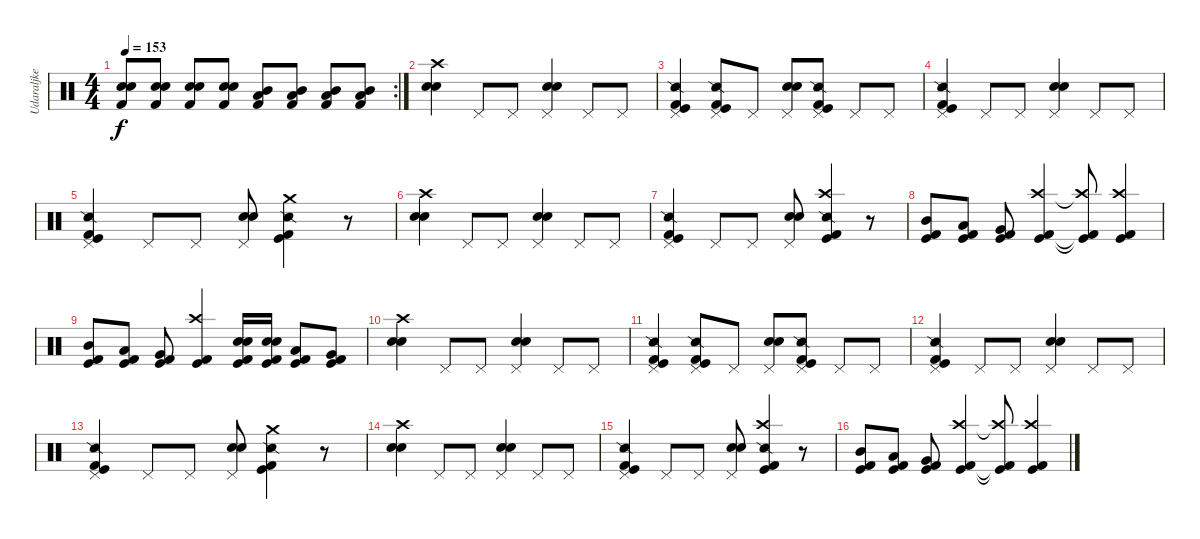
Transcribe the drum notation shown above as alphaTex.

\track ("Udaraljke" "Udaraljke") {instrument percussion}
\staff {score}
\articulation defaults
\rc 2
\ts (4 4)
\tempo 153
\clef neutral
\ks c
("Electric Snare (hit)" "Snare (hit) 2" "Kick (hit) 2").8{dy f} ("Electric Snare (hit)" "Snare (hit) 2" "Kick (hit) 2").8 ("Electric Snare (hit)" "Snare (hit) 2" "Kick (hit) 2").8 ("Electric Snare (hit)" "Snare (hit) 2" "Kick (hit) 2").8 ("Mid Tom (hit)" "Low Tom (hit)" "Kick (hit) 2").8 ("Mid Tom (hit)" "Low Tom (hit)" "Kick (hit) 2").8 ("Mid Tom (hit)" "Low Tom (hit)" "Kick (hit) 2").8 ("Mid Tom (hit)" "Low Tom (hit)" "Kick (hit) 2").8 |
("Crash high (hit)" "Electric Snare (hit)" "Snare (hit) 2").4 "Pedal Hi-Hat (hit)".8 "Pedal Hi-Hat (hit)".8 ("Pedal Hi-Hat (hit)" "Electric Snare (hit)" "Snare (hit) 2").4 "Pedal Hi-Hat (hit)".8 "Pedal Hi-Hat (hit)".8 |
("Pedal Hi-Hat (hit)" "Kick (hit) 2" "Kick (hit)" "Snare (side stick) 2").4 ("Pedal Hi-Hat (hit)" "Kick (hit) 2" "Kick (hit)" "Snare (side stick) 2").8 "Pedal Hi-Hat (hit)".8 ("Pedal Hi-Hat (hit)" "Electric Snare (hit)" "Snare (hit) 2").8 ("Pedal Hi-Hat (hit)" "Kick (hit) 2" "Kick (hit)" "Snare (side stick) 2").8 "Pedal Hi-Hat (hit)".8 "Pedal Hi-Hat (hit)".8 |
("Pedal Hi-Hat (hit)" "Kick (hit) 2" "Kick (hit)" "Snare (side stick) 2").4 "Pedal Hi-Hat (hit)".8 "Pedal Hi-Hat (hit)".8 ("Pedal Hi-Hat (hit)" "Electric Snare (hit)" "Snare (hit) 2").4 "Pedal Hi-Hat (hit)".8 "Pedal Hi-Hat (hit)".8 |
("Pedal Hi-Hat (hit)" "Kick (hit) 2" "Kick (hit)" "Snare (side stick) 2").4 "Pedal Hi-Hat (hit)".8 "Pedal Hi-Hat (hit)".8 ("Pedal Hi-Hat (hit)" "Electric Snare (hit)" "Snare (hit) 2").8 ("Crash medium (hit)" "Kick (hit) 2" "Kick (hit)" "Snare (side stick) 2").4 r.8 |
("Crash high (hit)" "Electric Snare (hit)" "Snare (hit) 2").4 "Pedal Hi-Hat (hit)".8 "Pedal Hi-Hat (hit)".8 ("Pedal Hi-Hat (hit)" "Electric Snare (hit)" "Snare (hit) 2").4 "Pedal Hi-Hat (hit)".8 "Pedal Hi-Hat (hit)".8 |
("Pedal Hi-Hat (hit)" "Kick (hit) 2" "Kick (hit)" "Snare (side stick) 2").4 "Pedal Hi-Hat (hit)".8 "Pedal Hi-Hat (hit)".8 ("Pedal Hi-Hat (hit)" "Electric Snare (hit)" "Snare (hit) 2").8 ("Crash high (hit)" "Kick (hit) 2" "Kick (hit)" "Snare (side stick) 2").4 r.8 |
("Mid Tom (hit)" "Kick (hit) 2" "Kick (hit)").8 ("Low Tom (hit)" "Kick (hit) 2" "Kick (hit)").8 ("Very Low Tom (hit)" "Kick (hit) 2" "Kick (hit)").8 ("Crash high (hit)" "Kick (hit) 2" "Kick (hit)").4 ("Crash high (hit)"{t} "Kick (hit) 2"{t} "Kick (hit)"{t}).8 ("Crash high (hit)" "Kick (hit) 2" "Kick (hit)").4 |
("Mid Tom (hit)" "Kick (hit) 2" "Kick (hit)").8 ("Low Tom (hit)" "Kick (hit) 2" "Kick (hit)").8 ("Very Low Tom (hit)" "Kick (hit) 2" "Kick (hit)").8 ("Crash high (hit)" "Kick (hit) 2" "Kick (hit)").4 ("Electric Snare (hit)" "Snare (hit) 2" "Kick (hit) 2" "Kick (hit)").16 ("Electric Snare (hit)" "Snare (hit) 2" "Kick (hit) 2" "Kick (hit)").16 ("Low Tom (hit)" "Kick (hit) 2" "Kick (hit)").8 ("Very Low Tom (hit)" "Kick (hit) 2" "Kick (hit)").8 |
("Crash high (hit)" "Electric Snare (hit)" "Snare (hit) 2").4 "Pedal Hi-Hat (hit)".8 "Pedal Hi-Hat (hit)".8 ("Pedal Hi-Hat (hit)" "Electric Snare (hit)" "Snare (hit) 2").4 "Pedal Hi-Hat (hit)".8 "Pedal Hi-Hat (hit)".8 |
("Pedal Hi-Hat (hit)" "Kick (hit) 2" "Kick (hit)" "Snare (side stick) 2").4 ("Pedal Hi-Hat (hit)" "Kick (hit) 2" "Kick (hit)" "Snare (side stick) 2").8 "Pedal Hi-Hat (hit)".8 ("Pedal Hi-Hat (hit)" "Electric Snare (hit)" "Snare (hit) 2").8 ("Pedal Hi-Hat (hit)" "Kick (hit) 2" "Kick (hit)" "Snare (side stick) 2").8 "Pedal Hi-Hat (hit)".8 "Pedal Hi-Hat (hit)".8 |
("Pedal Hi-Hat (hit)" "Kick (hit) 2" "Kick (hit)" "Snare (side stick) 2").4 "Pedal Hi-Hat (hit)".8 "Pedal Hi-Hat (hit)".8 ("Pedal Hi-Hat (hit)" "Electric Snare (hit)" "Snare (hit) 2").4 "Pedal Hi-Hat (hit)".8 "Pedal Hi-Hat (hit)".8 |
("Pedal Hi-Hat (hit)" "Kick (hit) 2" "Kick (hit)" "Snare (side stick) 2").4 "Pedal Hi-Hat (hit)".8 "Pedal Hi-Hat (hit)".8 ("Pedal Hi-Hat (hit)" "Electric Snare (hit)" "Snare (hit) 2").8 ("Crash medium (hit)" "Kick (hit) 2" "Kick (hit)" "Snare (side stick) 2").4 r.8 |
("Crash high (hit)" "Electric Snare (hit)" "Snare (hit) 2").4 "Pedal Hi-Hat (hit)".8 "Pedal Hi-Hat (hit)".8 ("Pedal Hi-Hat (hit)" "Electric Snare (hit)" "Snare (hit) 2").4 "Pedal Hi-Hat (hit)".8 "Pedal Hi-Hat (hit)".8 |
("Pedal Hi-Hat (hit)" "Kick (hit) 2" "Kick (hit)" "Snare (side stick) 2").4 "Pedal Hi-Hat (hit)".8 "Pedal Hi-Hat (hit)".8 ("Pedal Hi-Hat (hit)" "Electric Snare (hit)" "Snare (hit) 2").8 ("Crash high (hit)" "Kick (hit) 2" "Kick (hit)" "Snare (side stick) 2").4 r.8 |
("Mid Tom (hit)" "Kick (hit) 2" "Kick (hit)").8 ("Low Tom (hit)" "Kick (hit) 2" "Kick (hit)").8 ("Very Low Tom (hit)" "Kick (hit) 2" "Kick (hit)").8 ("Crash high (hit)" "Kick (hit) 2" "Kick (hit)").4 ("Crash high (hit)"{t} "Kick (hit) 2"{t} "Kick (hit)"{t}).8 ("Crash high (hit)" "Kick (hit) 2" "Kick (hit)").4
